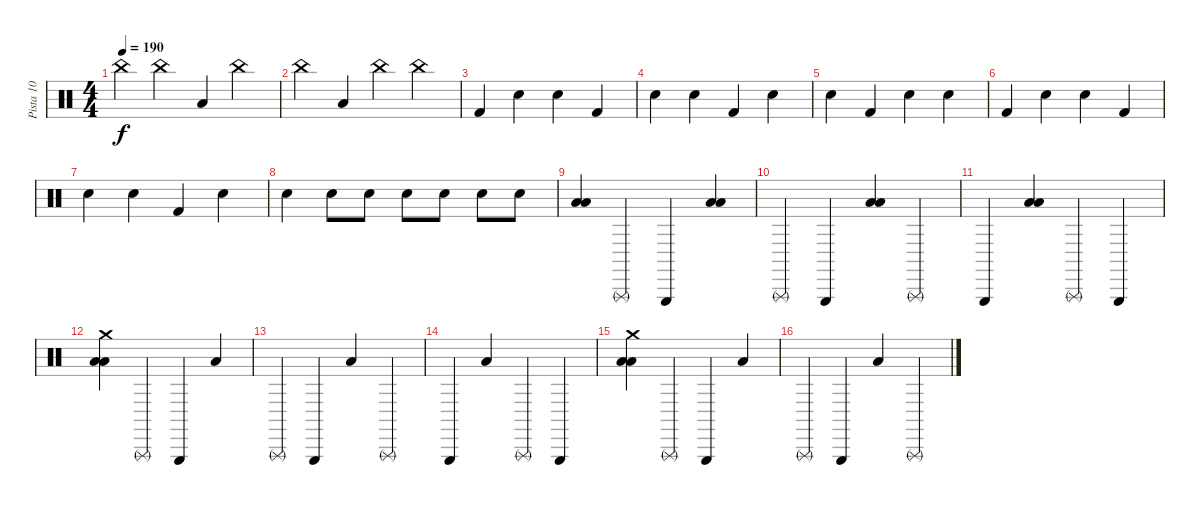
\track ("Pista 10" "Pista 10") {instrument percussion}
\staff {score}
\articulation defaults
\ts (4 4)
\tempo 190
\clef neutral
\ks c "China (hit)".4{dy f} "China (hit)".4 "Low Floor Tom (hit)".4 "China (hit)".4
|
"China (hit)".4 "Low Floor Tom (hit)".4 "China (hit)".4 "China (hit)".4 |
"Kick (hit) 2".4 "Snare (hit) 2".4 "Snare (hit) 2".4 "Kick (hit) 2".4 |
"Snare (hit) 2".4 "Snare (hit) 2".4 "Kick (hit) 2".4 "Snare (hit) 2".4 |
"Snare (hit) 2".4 "Kick (hit) 2".4 "Snare (hit) 2".4 "Snare (hit) 2".4 |
"Kick (hit) 2".4 "Snare (hit) 2".4 "Snare (hit) 2".4 "Kick (hit) 2".4 |
"Snare (hit) 2".4 "Snare (hit) 2".4 "Kick (hit) 2".4 "Snare (hit) 2".4 |
"Snare (hit) 2".4 "Snare (hit) 2".8 "Snare (hit) 2".8 "Snare (hit) 2".8 "Snare (hit) 2".8 "Snare (hit) 2".8 "Snare (hit) 2".8 |
("Low Floor Tom (hit)" "Low Floor Tom (hit)").4 "Triangle (rnute)".4 "Triangle (hit)".4 ("Low Floor Tom (hit)" "Low Floor Tom (hit)").4 |
"Triangle (rnute)".4 "Triangle (hit)".4 ("Low Floor Tom (hit)" "Low Floor Tom (hit)").4 "Triangle (rnute)".4 |
"Triangle (hit)".4 ("Low Floor Tom (hit)" "Low Floor Tom (hit)").4 "Triangle (rnute)".4 "Triangle (hit)".4 |
("Low Floor Tom (hit)" "Low Floor Tom (hit)" "Crash medium (hit)").4 "Triangle (rnute)".4 "Triangle (hit)".4 "Low Floor Tom (hit)".4 |
"Triangle (rnute)".4 "Triangle (hit)".4 "Low Floor Tom (hit)".4 "Triangle (rnute)".4 |
"Triangle (hit)".4 "Low Floor Tom (hit)".4 "Triangle (rnute)".4 "Triangle (hit)".4 |
("Low Floor Tom (hit)" "Low Floor Tom (hit)" "Crash medium (hit)").4 "Triangle (rnute)".4 "Triangle (hit)".4 "Low Floor Tom (hit)".4 |
"Triangle (rnute)".4 "Triangle (hit)".4 "Low Floor Tom (hit)".4 "Triangle (rnute)".4
